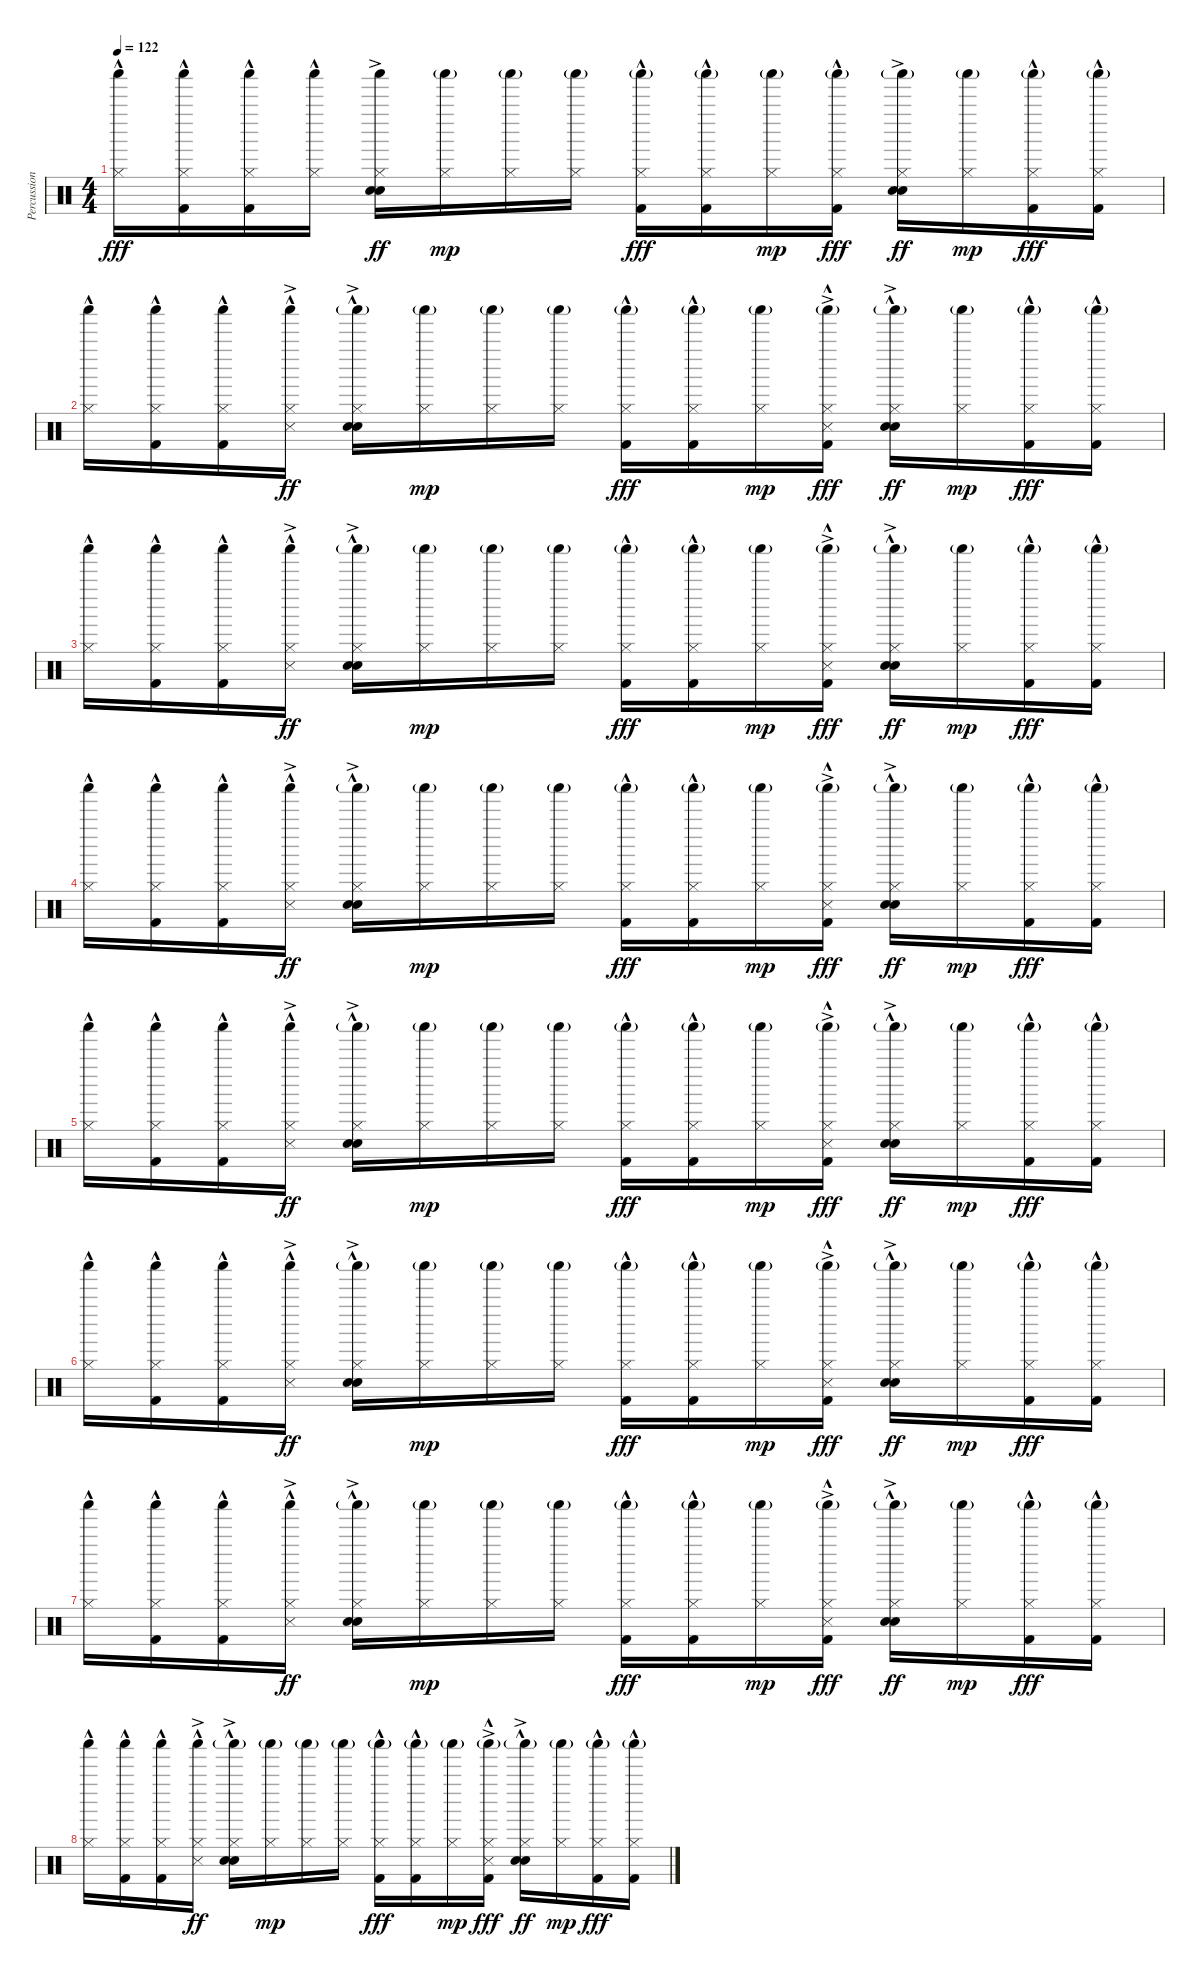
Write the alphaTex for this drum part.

\track ("Percussion" "Percussion") {instrument percussion}
\staff {score}
\articulation defaults
\ts (4 4)
\tempo 122
\clef neutral
\ks c
("Shaker (hit)" "Hi-Hat (closed)"{hac}).16{dy fff} ("Shaker (hit)" "Hi-Hat (closed)"{hac} "Kick (hit) 2"{hac}).16 ("Shaker (hit)" "Hi-Hat (closed)"{hac} "Kick (hit) 2"{hac}).16 ("Shaker (hit)" "Hi-Hat (closed)"{hac}).16 ("Shaker (hit)" "Hi-Hat (closed)" "Hand Clap (hit)" "Snare (hit) 2"{ac}).16{dy ff} ("Shaker (hit)"{g} "Hi-Hat (closed)").16{dy mp} ("Shaker (hit)"{g} "Hi-Hat (closed)").16 ("Shaker (hit)"{g} "Hi-Hat (closed)").16 ("Shaker (hit)"{g} "Hi-Hat (closed)" "Kick (hit) 2"{hac}).16{dy fff} ("Shaker (hit)"{g} "Hi-Hat (closed)" "Kick (hit) 2"{hac}).16 ("Shaker (hit)"{g} "Hi-Hat (closed)").16{dy mp} ("Shaker (hit)"{g} "Hi-Hat (closed)" "Kick (hit) 2"{hac}).16{dy fff} ("Shaker (hit)"{g} "Hi-Hat (closed)" "Hand Clap (hit)"{ac} "Snare (hit) 2"{ac}).16{dy ff} ("Shaker (hit)"{g} "Hi-Hat (closed)").16{dy mp} ("Shaker (hit)"{g} "Hi-Hat (closed)" "Kick (hit) 2"{hac}).16{dy fff} ("Shaker (hit)"{g} "Hi-Hat (closed)" "Kick (hit) 2"{hac}).16 |
("Shaker (hit)" "Hi-Hat (closed)"{hac}).16 ("Shaker (hit)" "Hi-Hat (closed)"{hac} "Kick (hit) 2"{hac}).16 ("Shaker (hit)" "Hi-Hat (closed)"{hac} "Kick (hit) 2"{hac}).16 ("Shaker (hit)" "Hi-Hat (closed)"{hac} "Snare (side stick) 3"{ac}).16{dy ff} ("Shaker (hit)"{g} "Hi-Hat (closed)" "Hand Clap (hit)"{hac} "Snare (hit) 2"{ac}).16 ("Shaker (hit)"{g} "Hi-Hat (closed)").16{dy mp} ("Shaker (hit)"{g} "Hi-Hat (closed)").16 ("Shaker (hit)"{g} "Hi-Hat (closed)").16 ("Shaker (hit)"{g} "Hi-Hat (closed)" "Kick (hit) 2"{hac}).16{dy fff} ("Shaker (hit)"{g} "Hi-Hat (closed)" "Kick (hit) 2"{hac}).16 ("Shaker (hit)"{g} "Hi-Hat (closed)").16{dy mp} ("Shaker (hit)"{g} "Hi-Hat (closed)" "Snare (side stick) 3"{ac} "Kick (hit) 2"{hac}).16{dy fff} ("Shaker (hit)"{g} "Hi-Hat (closed)" "Hand Clap (hit)"{hac} "Snare (hit) 2"{ac}).16{dy ff} ("Shaker (hit)"{g} "Hi-Hat (closed)").16{dy mp} ("Shaker (hit)"{g} "Hi-Hat (closed)" "Kick (hit) 2"{hac}).16{dy fff} ("Shaker (hit)"{g} "Hi-Hat (closed)" "Kick (hit) 2"{hac}).16 |
("Shaker (hit)" "Hi-Hat (closed)"{hac}).16 ("Shaker (hit)" "Hi-Hat (closed)"{hac} "Kick (hit) 2"{hac}).16 ("Shaker (hit)" "Hi-Hat (closed)"{hac} "Kick (hit) 2"{hac}).16 ("Shaker (hit)" "Hi-Hat (closed)"{hac} "Snare (side stick) 3"{ac}).16{dy ff} ("Shaker (hit)"{g} "Hi-Hat (closed)" "Hand Clap (hit)"{hac} "Snare (hit) 2"{ac}).16 ("Shaker (hit)"{g} "Hi-Hat (closed)").16{dy mp} ("Shaker (hit)"{g} "Hi-Hat (closed)").16 ("Shaker (hit)"{g} "Hi-Hat (closed)").16 ("Shaker (hit)"{g} "Hi-Hat (closed)" "Kick (hit) 2"{hac}).16{dy fff} ("Shaker (hit)"{g} "Hi-Hat (closed)" "Kick (hit) 2"{hac}).16 ("Shaker (hit)"{g} "Hi-Hat (closed)").16{dy mp} ("Shaker (hit)"{g} "Hi-Hat (closed)" "Snare (side stick) 3"{ac} "Kick (hit) 2"{hac}).16{dy fff} ("Shaker (hit)"{g} "Hi-Hat (closed)" "Hand Clap (hit)"{hac} "Snare (hit) 2"{ac}).16{dy ff} ("Shaker (hit)"{g} "Hi-Hat (closed)").16{dy mp} ("Shaker (hit)"{g} "Hi-Hat (closed)" "Kick (hit) 2"{hac}).16{dy fff} ("Shaker (hit)"{g} "Hi-Hat (closed)" "Kick (hit) 2"{hac}).16 |
("Shaker (hit)" "Hi-Hat (closed)"{hac}).16 ("Shaker (hit)" "Hi-Hat (closed)"{hac} "Kick (hit) 2"{hac}).16 ("Shaker (hit)" "Hi-Hat (closed)"{hac} "Kick (hit) 2"{hac}).16 ("Shaker (hit)" "Hi-Hat (closed)"{hac} "Snare (side stick) 3"{ac}).16{dy ff} ("Shaker (hit)"{g} "Hi-Hat (closed)" "Hand Clap (hit)"{hac} "Snare (hit) 2"{ac}).16 ("Shaker (hit)"{g} "Hi-Hat (closed)").16{dy mp} ("Shaker (hit)"{g} "Hi-Hat (closed)").16 ("Shaker (hit)"{g} "Hi-Hat (closed)").16 ("Shaker (hit)"{g} "Hi-Hat (closed)" "Kick (hit) 2"{hac}).16{dy fff} ("Shaker (hit)"{g} "Hi-Hat (closed)" "Kick (hit) 2"{hac}).16 ("Shaker (hit)"{g} "Hi-Hat (closed)").16{dy mp} ("Shaker (hit)"{g} "Hi-Hat (closed)" "Snare (side stick) 3"{ac} "Kick (hit) 2"{hac}).16{dy fff} ("Shaker (hit)"{g} "Hi-Hat (closed)" "Hand Clap (hit)"{hac} "Snare (hit) 2"{ac}).16{dy ff} ("Shaker (hit)"{g} "Hi-Hat (closed)").16{dy mp} ("Shaker (hit)"{g} "Hi-Hat (closed)" "Kick (hit) 2"{hac}).16{dy fff} ("Shaker (hit)"{g} "Hi-Hat (closed)" "Kick (hit) 2"{hac}).16 |
("Shaker (hit)" "Hi-Hat (closed)"{hac}).16 ("Shaker (hit)" "Hi-Hat (closed)"{hac} "Kick (hit) 2"{hac}).16 ("Shaker (hit)" "Hi-Hat (closed)"{hac} "Kick (hit) 2"{hac}).16 ("Shaker (hit)" "Hi-Hat (closed)"{hac} "Snare (side stick) 3"{ac}).16{dy ff} ("Shaker (hit)"{g} "Hi-Hat (closed)" "Hand Clap (hit)"{hac} "Snare (hit) 2"{ac}).16 ("Shaker (hit)"{g} "Hi-Hat (closed)").16{dy mp} ("Shaker (hit)"{g} "Hi-Hat (closed)").16 ("Shaker (hit)"{g} "Hi-Hat (closed)").16 ("Shaker (hit)"{g} "Hi-Hat (closed)" "Kick (hit) 2"{hac}).16{dy fff} ("Shaker (hit)"{g} "Hi-Hat (closed)" "Kick (hit) 2"{hac}).16 ("Shaker (hit)"{g} "Hi-Hat (closed)").16{dy mp} ("Shaker (hit)"{g} "Hi-Hat (closed)" "Snare (side stick) 3"{ac} "Kick (hit) 2"{hac}).16{dy fff} ("Shaker (hit)"{g} "Hi-Hat (closed)" "Hand Clap (hit)"{hac} "Snare (hit) 2"{ac}).16{dy ff} ("Shaker (hit)"{g} "Hi-Hat (closed)").16{dy mp} ("Shaker (hit)"{g} "Hi-Hat (closed)" "Kick (hit) 2"{hac}).16{dy fff} ("Shaker (hit)"{g} "Hi-Hat (closed)" "Kick (hit) 2"{hac}).16 |
("Shaker (hit)" "Hi-Hat (closed)"{hac}).16 ("Shaker (hit)" "Hi-Hat (closed)"{hac} "Kick (hit) 2"{hac}).16 ("Shaker (hit)" "Hi-Hat (closed)"{hac} "Kick (hit) 2"{hac}).16 ("Shaker (hit)" "Hi-Hat (closed)"{hac} "Snare (side stick) 3"{ac}).16{dy ff} ("Shaker (hit)"{g} "Hi-Hat (closed)" "Hand Clap (hit)"{hac} "Snare (hit) 2"{ac}).16 ("Shaker (hit)"{g} "Hi-Hat (closed)").16{dy mp} ("Shaker (hit)"{g} "Hi-Hat (closed)").16 ("Shaker (hit)"{g} "Hi-Hat (closed)").16 ("Shaker (hit)"{g} "Hi-Hat (closed)" "Kick (hit) 2"{hac}).16{dy fff} ("Shaker (hit)"{g} "Hi-Hat (closed)" "Kick (hit) 2"{hac}).16 ("Shaker (hit)"{g} "Hi-Hat (closed)").16{dy mp} ("Shaker (hit)"{g} "Hi-Hat (closed)" "Snare (side stick) 3"{ac} "Kick (hit) 2"{hac}).16{dy fff} ("Shaker (hit)"{g} "Hi-Hat (closed)" "Hand Clap (hit)"{hac} "Snare (hit) 2"{ac}).16{dy ff} ("Shaker (hit)"{g} "Hi-Hat (closed)").16{dy mp} ("Shaker (hit)"{g} "Hi-Hat (closed)" "Kick (hit) 2"{hac}).16{dy fff} ("Shaker (hit)"{g} "Hi-Hat (closed)" "Kick (hit) 2"{hac}).16 |
("Shaker (hit)" "Hi-Hat (closed)"{hac}).16 ("Shaker (hit)" "Hi-Hat (closed)"{hac} "Kick (hit) 2"{hac}).16 ("Shaker (hit)" "Hi-Hat (closed)"{hac} "Kick (hit) 2"{hac}).16 ("Shaker (hit)" "Hi-Hat (closed)"{hac} "Snare (side stick) 3"{ac}).16{dy ff} ("Shaker (hit)"{g} "Hi-Hat (closed)" "Hand Clap (hit)"{hac} "Snare (hit) 2"{ac}).16 ("Shaker (hit)"{g} "Hi-Hat (closed)").16{dy mp} ("Shaker (hit)"{g} "Hi-Hat (closed)").16 ("Shaker (hit)"{g} "Hi-Hat (closed)").16 ("Shaker (hit)"{g} "Hi-Hat (closed)" "Kick (hit) 2"{hac}).16{dy fff} ("Shaker (hit)"{g} "Hi-Hat (closed)" "Kick (hit) 2"{hac}).16 ("Shaker (hit)"{g} "Hi-Hat (closed)").16{dy mp} ("Shaker (hit)"{g} "Hi-Hat (closed)" "Snare (side stick) 3"{ac} "Kick (hit) 2"{hac}).16{dy fff} ("Shaker (hit)"{g} "Hi-Hat (closed)" "Hand Clap (hit)"{hac} "Snare (hit) 2"{ac}).16{dy ff} ("Shaker (hit)"{g} "Hi-Hat (closed)").16{dy mp} ("Shaker (hit)"{g} "Hi-Hat (closed)" "Kick (hit) 2"{hac}).16{dy fff} ("Shaker (hit)"{g} "Hi-Hat (closed)" "Kick (hit) 2"{hac}).16 |
("Shaker (hit)" "Hi-Hat (closed)"{hac}).16 ("Shaker (hit)" "Hi-Hat (closed)"{hac} "Kick (hit) 2"{hac}).16 ("Shaker (hit)" "Hi-Hat (closed)"{hac} "Kick (hit) 2"{hac}).16 ("Shaker (hit)" "Hi-Hat (closed)"{hac} "Snare (side stick) 3"{ac}).16{dy ff} ("Shaker (hit)"{g} "Hi-Hat (closed)" "Hand Clap (hit)"{hac} "Snare (hit) 2"{ac}).16 ("Shaker (hit)"{g} "Hi-Hat (closed)").16{dy mp} ("Shaker (hit)"{g} "Hi-Hat (closed)").16 ("Shaker (hit)"{g} "Hi-Hat (closed)").16 ("Shaker (hit)"{g} "Hi-Hat (closed)" "Kick (hit) 2"{hac}).16{dy fff} ("Shaker (hit)"{g} "Hi-Hat (closed)" "Kick (hit) 2"{hac}).16 ("Shaker (hit)"{g} "Hi-Hat (closed)").16{dy mp} ("Shaker (hit)"{g} "Hi-Hat (closed)" "Snare (side stick) 3"{ac} "Kick (hit) 2"{hac}).16{dy fff} ("Shaker (hit)"{g} "Hi-Hat (closed)" "Hand Clap (hit)"{hac} "Snare (hit) 2"{ac}).16{dy ff} ("Shaker (hit)"{g} "Hi-Hat (closed)").16{dy mp} ("Shaker (hit)"{g} "Hi-Hat (closed)" "Kick (hit) 2"{hac}).16{dy fff} ("Shaker (hit)"{g} "Hi-Hat (closed)" "Kick (hit) 2"{hac}).16
